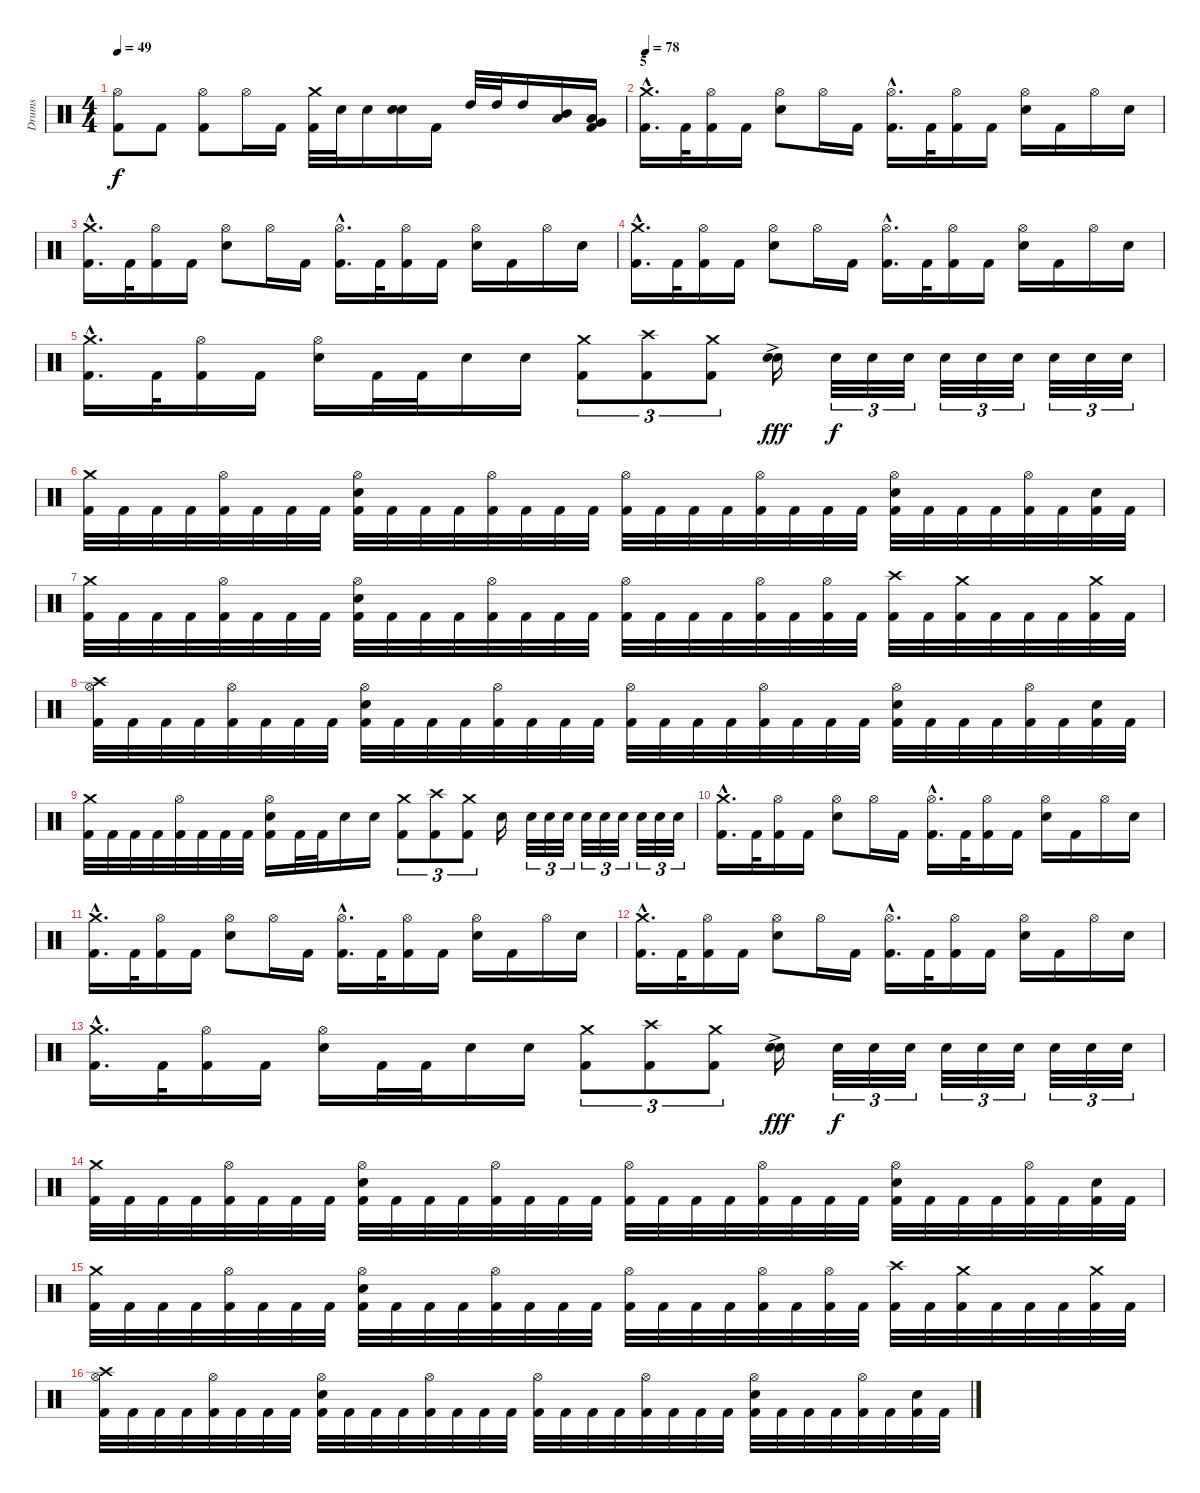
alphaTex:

\track ("Drums" "Drums") {instrument percussion}
\staff {score}
\articulation defaults
\ts (4 4)
\tempo 49
\clef neutral
\ks c
("Hi-Hat (open)" "Kick (hit) 2").8{dy f} "Kick (hit) 2".8 ("Hi-Hat (open)" "Kick (hit) 2").8 "Hi-Hat (open)".16 "Kick (hit) 2".16 ("Crash medium (hit)" "Kick (hit) 2").32 "Electric Snare (hit)".32 "Electric Snare (hit)".16 ("Electric Snare (hit)" "Electric Snare (hit)").16{bu 60} "Kick (hit) 2".16 "High Tom (hit)".32 "High Tom (hit)".32 "High Tom (hit)".16 ("Mid Tom (hit)" "Low Tom (hit)").16 ("Low Tom (hit)" "Very Low Tom (hit)" "Kick (hit) 2").16 |
\section ("" "5")
\tempo 78
("Crash medium (hit)"{hac} "Kick (hit) 2"{hac}).16{d} "Kick (hit) 2".32 ("Hi-Hat (open)" "Kick (hit) 2").16 "Kick (hit) 2".16 ("Hi-Hat (open)" "Electric Snare (hit)").8 "Hi-Hat (open)".16 "Kick (hit) 2".16 ("Hi-Hat (open)"{hac} "Kick (hit) 2"{hac}).16{d} "Kick (hit) 2".32 ("Hi-Hat (open)" "Kick (hit) 2").16 "Kick (hit) 2".16 ("Hi-Hat (open)" "Electric Snare (hit)").16 "Kick (hit) 2".16 "Hi-Hat (open)".16 "Electric Snare (hit)".16 |
("Crash medium (hit)"{hac} "Kick (hit) 2"{hac}).16{d} "Kick (hit) 2".32 ("Hi-Hat (open)" "Kick (hit) 2").16 "Kick (hit) 2".16 ("Hi-Hat (open)" "Electric Snare (hit)").8 "Hi-Hat (open)".16 "Kick (hit) 2".16 ("Hi-Hat (open)"{hac} "Kick (hit) 2"{hac}).16{d} "Kick (hit) 2".32 ("Hi-Hat (open)" "Kick (hit) 2").16 "Kick (hit) 2".16 ("Hi-Hat (open)" "Electric Snare (hit)").16 "Kick (hit) 2".16 "Hi-Hat (open)".16 "Electric Snare (hit)".16 |
("Crash medium (hit)"{hac} "Kick (hit) 2"{hac}).16{d} "Kick (hit) 2".32 ("Hi-Hat (open)" "Kick (hit) 2").16 "Kick (hit) 2".16 ("Hi-Hat (open)" "Electric Snare (hit)").8 "Hi-Hat (open)".16 "Kick (hit) 2".16 ("Hi-Hat (open)"{hac} "Kick (hit) 2"{hac}).16{d} "Kick (hit) 2".32 ("Hi-Hat (open)" "Kick (hit) 2").16 "Kick (hit) 2".16 ("Hi-Hat (open)" "Electric Snare (hit)").16 "Kick (hit) 2".16 "Hi-Hat (open)".16 "Electric Snare (hit)".16 |
("Crash medium (hit)"{hac} "Kick (hit) 2"{hac}).16{d} "Kick (hit) 2".32 ("Hi-Hat (open)" "Kick (hit) 2").16 "Kick (hit) 2".16 ("Hi-Hat (open)" "Electric Snare (hit)").16 "Kick (hit) 2".32 "Kick (hit) 2".32 "Electric Snare (hit)".16 "Electric Snare (hit)".16 ("Crash medium (hit)" "Kick (hit) 2").8{tu (3 2)} ("Crash high (hit)" "Kick (hit) 2").8{tu (3 2)} ("Crash medium (hit)" "Kick (hit) 2").8{tu (3 2)} ("Electric Snare (hit)"{ac} "Electric Snare (hit)"{tr (40 16) ac}).16{dy fff} "Electric Snare (hit)".32{tu (3 2) dy f} "Electric Snare (hit)".32{tu (3 2)} "Electric Snare (hit)".32{tu (3 2)} "Electric Snare (hit)".32{tu (3 2)} "Electric Snare (hit)".32{tu (3 2)} "Electric Snare (hit)".32{tu (3 2)} "Electric Snare (hit)".32{tu (3 2)} "Electric Snare (hit)".32{tu (3 2)} "Electric Snare (hit)".32{tu (3 2)} |
("Crash medium (hit)" "Kick (hit) 2").32 "Kick (hit) 2".32 "Kick (hit) 2".32 "Kick (hit) 2".32 ("Hi-Hat (open)" "Kick (hit) 2").32 "Kick (hit) 2".32 "Kick (hit) 2".32 "Kick (hit) 2".32 ("Hi-Hat (open)" "Electric Snare (hit)" "Kick (hit) 2").32 "Kick (hit) 2".32 "Kick (hit) 2".32 "Kick (hit) 2".32 ("Hi-Hat (open)" "Kick (hit) 2").32 "Kick (hit) 2".32 "Kick (hit) 2".32 "Kick (hit) 2".32 ("Hi-Hat (open)" "Kick (hit) 2").32 "Kick (hit) 2".32 "Kick (hit) 2".32 "Kick (hit) 2".32 ("Hi-Hat (open)" "Kick (hit) 2").32 "Kick (hit) 2".32 "Kick (hit) 2".32 "Kick (hit) 2".32 ("Hi-Hat (open)" "Electric Snare (hit)" "Kick (hit) 2").32 "Kick (hit) 2".32 "Kick (hit) 2".32 "Kick (hit) 2".32 ("Hi-Hat (open)" "Kick (hit) 2").32 "Kick (hit) 2".32 ("Electric Snare (hit)" "Kick (hit) 2").32 "Kick (hit) 2".32 |
("Crash medium (hit)" "Kick (hit) 2").32 "Kick (hit) 2".32 "Kick (hit) 2".32 "Kick (hit) 2".32 ("Hi-Hat (open)" "Kick (hit) 2").32 "Kick (hit) 2".32 "Kick (hit) 2".32 "Kick (hit) 2".32 ("Hi-Hat (open)" "Electric Snare (hit)" "Kick (hit) 2").32 "Kick (hit) 2".32 "Kick (hit) 2".32 "Kick (hit) 2".32 ("Hi-Hat (open)" "Kick (hit) 2").32 "Kick (hit) 2".32 "Kick (hit) 2".32 "Kick (hit) 2".32 ("Hi-Hat (open)" "Kick (hit) 2").32 "Kick (hit) 2".32 "Kick (hit) 2".32 "Kick (hit) 2".32 ("Hi-Hat (open)" "Kick (hit) 2").32 "Kick (hit) 2".32 ("Hi-Hat (open)" "Kick (hit) 2").32 "Kick (hit) 2".32 ("Crash high (hit)" "Kick (hit) 2").32 "Kick (hit) 2".32 ("Crash medium (hit)" "Kick (hit) 2").32 "Kick (hit) 2".32 "Kick (hit) 2".32 "Kick (hit) 2".32 ("Crash medium (hit)" "Kick (hit) 2").32 "Kick (hit) 2".32 |
("Crash high (hit)" "Hi-Hat (open)" "Kick (hit) 2").32 "Kick (hit) 2".32 "Kick (hit) 2".32 "Kick (hit) 2".32 ("Hi-Hat (open)" "Kick (hit) 2").32 "Kick (hit) 2".32 "Kick (hit) 2".32 "Kick (hit) 2".32 ("Hi-Hat (open)" "Electric Snare (hit)" "Kick (hit) 2").32 "Kick (hit) 2".32 "Kick (hit) 2".32 "Kick (hit) 2".32 ("Hi-Hat (open)" "Kick (hit) 2").32 "Kick (hit) 2".32 "Kick (hit) 2".32 "Kick (hit) 2".32 ("Hi-Hat (open)" "Kick (hit) 2").32 "Kick (hit) 2".32 "Kick (hit) 2".32 "Kick (hit) 2".32 ("Hi-Hat (open)" "Kick (hit) 2").32 "Kick (hit) 2".32 "Kick (hit) 2".32 "Kick (hit) 2".32 ("Hi-Hat (open)" "Electric Snare (hit)" "Kick (hit) 2").32 "Kick (hit) 2".32 "Kick (hit) 2".32 "Kick (hit) 2".32 ("Hi-Hat (open)" "Kick (hit) 2").32 "Kick (hit) 2".32 ("Electric Snare (hit)" "Kick (hit) 2").32 "Kick (hit) 2".32 |
("Crash medium (hit)" "Kick (hit) 2").32 "Kick (hit) 2".32 "Kick (hit) 2".32 "Kick (hit) 2".32 ("Hi-Hat (open)" "Kick (hit) 2").32 "Kick (hit) 2".32 "Kick (hit) 2".32 "Kick (hit) 2".32 ("Hi-Hat (open)" "Electric Snare (hit)" "Kick (hit) 2").16 "Kick (hit) 2".32 "Kick (hit) 2".32 "Electric Snare (hit)".16 "Electric Snare (hit)".16 ("Crash medium (hit)" "Kick (hit) 2").8{tu (3 2)} ("Crash high (hit)" "Kick (hit) 2").8{tu (3 2)} ("Crash medium (hit)" "Kick (hit) 2").8{tu (3 2)} "Electric Snare (hit)".16 "Electric Snare (hit)".32{tu (3 2)} "Electric Snare (hit)".32{tu (3 2)} "Electric Snare (hit)".32{tu (3 2)} "Electric Snare (hit)".32{tu (3 2)} "Electric Snare (hit)".32{tu (3 2)} "Electric Snare (hit)".32{tu (3 2)} "Electric Snare (hit)".32{tu (3 2)} "Electric Snare (hit)".32{tu (3 2)} "Electric Snare (hit)".32{tu (3 2)} |
("Crash medium (hit)"{hac} "Kick (hit) 2"{hac}).16{d} "Kick (hit) 2".32 ("Hi-Hat (open)" "Kick (hit) 2").16 "Kick (hit) 2".16 ("Hi-Hat (open)" "Electric Snare (hit)").8 "Hi-Hat (open)".16 "Kick (hit) 2".16 ("Hi-Hat (open)"{hac} "Kick (hit) 2"{hac}).16{d} "Kick (hit) 2".32 ("Hi-Hat (open)" "Kick (hit) 2").16 "Kick (hit) 2".16 ("Hi-Hat (open)" "Electric Snare (hit)").16 "Kick (hit) 2".16 "Hi-Hat (open)".16 "Electric Snare (hit)".16 |
("Crash medium (hit)"{hac} "Kick (hit) 2"{hac}).16{d} "Kick (hit) 2".32 ("Hi-Hat (open)" "Kick (hit) 2").16 "Kick (hit) 2".16 ("Hi-Hat (open)" "Electric Snare (hit)").8 "Hi-Hat (open)".16 "Kick (hit) 2".16 ("Hi-Hat (open)"{hac} "Kick (hit) 2"{hac}).16{d} "Kick (hit) 2".32 ("Hi-Hat (open)" "Kick (hit) 2").16 "Kick (hit) 2".16 ("Hi-Hat (open)" "Electric Snare (hit)").16 "Kick (hit) 2".16 "Hi-Hat (open)".16 "Electric Snare (hit)".16 |
("Crash medium (hit)"{hac} "Kick (hit) 2"{hac}).16{d} "Kick (hit) 2".32 ("Hi-Hat (open)" "Kick (hit) 2").16 "Kick (hit) 2".16 ("Hi-Hat (open)" "Electric Snare (hit)").8 "Hi-Hat (open)".16 "Kick (hit) 2".16 ("Hi-Hat (open)"{hac} "Kick (hit) 2"{hac}).16{d} "Kick (hit) 2".32 ("Hi-Hat (open)" "Kick (hit) 2").16 "Kick (hit) 2".16 ("Hi-Hat (open)" "Electric Snare (hit)").16 "Kick (hit) 2".16 "Hi-Hat (open)".16 "Electric Snare (hit)".16 |
("Crash medium (hit)"{hac} "Kick (hit) 2"{hac}).16{d} "Kick (hit) 2".32 ("Hi-Hat (open)" "Kick (hit) 2").16 "Kick (hit) 2".16 ("Hi-Hat (open)" "Electric Snare (hit)").16 "Kick (hit) 2".32 "Kick (hit) 2".32 "Electric Snare (hit)".16 "Electric Snare (hit)".16 ("Crash medium (hit)" "Kick (hit) 2").8{tu (3 2)} ("Crash high (hit)" "Kick (hit) 2").8{tu (3 2)} ("Crash medium (hit)" "Kick (hit) 2").8{tu (3 2)} ("Electric Snare (hit)"{ac} "Electric Snare (hit)"{tr (40 16) ac}).16{dy fff} "Electric Snare (hit)".32{tu (3 2) dy f} "Electric Snare (hit)".32{tu (3 2)} "Electric Snare (hit)".32{tu (3 2)} "Electric Snare (hit)".32{tu (3 2)} "Electric Snare (hit)".32{tu (3 2)} "Electric Snare (hit)".32{tu (3 2)} "Electric Snare (hit)".32{tu (3 2)} "Electric Snare (hit)".32{tu (3 2)} "Electric Snare (hit)".32{tu (3 2)} |
("Crash medium (hit)" "Kick (hit) 2").32 "Kick (hit) 2".32 "Kick (hit) 2".32 "Kick (hit) 2".32 ("Hi-Hat (open)" "Kick (hit) 2").32 "Kick (hit) 2".32 "Kick (hit) 2".32 "Kick (hit) 2".32 ("Hi-Hat (open)" "Electric Snare (hit)" "Kick (hit) 2").32 "Kick (hit) 2".32 "Kick (hit) 2".32 "Kick (hit) 2".32 ("Hi-Hat (open)" "Kick (hit) 2").32 "Kick (hit) 2".32 "Kick (hit) 2".32 "Kick (hit) 2".32 ("Hi-Hat (open)" "Kick (hit) 2").32 "Kick (hit) 2".32 "Kick (hit) 2".32 "Kick (hit) 2".32 ("Hi-Hat (open)" "Kick (hit) 2").32 "Kick (hit) 2".32 "Kick (hit) 2".32 "Kick (hit) 2".32 ("Hi-Hat (open)" "Electric Snare (hit)" "Kick (hit) 2").32 "Kick (hit) 2".32 "Kick (hit) 2".32 "Kick (hit) 2".32 ("Hi-Hat (open)" "Kick (hit) 2").32 "Kick (hit) 2".32 ("Electric Snare (hit)" "Kick (hit) 2").32 "Kick (hit) 2".32 |
("Crash medium (hit)" "Kick (hit) 2").32 "Kick (hit) 2".32 "Kick (hit) 2".32 "Kick (hit) 2".32 ("Hi-Hat (open)" "Kick (hit) 2").32 "Kick (hit) 2".32 "Kick (hit) 2".32 "Kick (hit) 2".32 ("Hi-Hat (open)" "Electric Snare (hit)" "Kick (hit) 2").32 "Kick (hit) 2".32 "Kick (hit) 2".32 "Kick (hit) 2".32 ("Hi-Hat (open)" "Kick (hit) 2").32 "Kick (hit) 2".32 "Kick (hit) 2".32 "Kick (hit) 2".32 ("Hi-Hat (open)" "Kick (hit) 2").32 "Kick (hit) 2".32 "Kick (hit) 2".32 "Kick (hit) 2".32 ("Hi-Hat (open)" "Kick (hit) 2").32 "Kick (hit) 2".32 ("Hi-Hat (open)" "Kick (hit) 2").32 "Kick (hit) 2".32 ("Crash high (hit)" "Kick (hit) 2").32 "Kick (hit) 2".32 ("Crash medium (hit)" "Kick (hit) 2").32 "Kick (hit) 2".32 "Kick (hit) 2".32 "Kick (hit) 2".32 ("Crash medium (hit)" "Kick (hit) 2").32 "Kick (hit) 2".32 |
("Crash high (hit)" "Hi-Hat (open)" "Kick (hit) 2").32 "Kick (hit) 2".32 "Kick (hit) 2".32 "Kick (hit) 2".32 ("Hi-Hat (open)" "Kick (hit) 2").32 "Kick (hit) 2".32 "Kick (hit) 2".32 "Kick (hit) 2".32 ("Hi-Hat (open)" "Electric Snare (hit)" "Kick (hit) 2").32 "Kick (hit) 2".32 "Kick (hit) 2".32 "Kick (hit) 2".32 ("Hi-Hat (open)" "Kick (hit) 2").32 "Kick (hit) 2".32 "Kick (hit) 2".32 "Kick (hit) 2".32 ("Hi-Hat (open)" "Kick (hit) 2").32 "Kick (hit) 2".32 "Kick (hit) 2".32 "Kick (hit) 2".32 ("Hi-Hat (open)" "Kick (hit) 2").32 "Kick (hit) 2".32 "Kick (hit) 2".32 "Kick (hit) 2".32 ("Hi-Hat (open)" "Electric Snare (hit)" "Kick (hit) 2").32 "Kick (hit) 2".32 "Kick (hit) 2".32 "Kick (hit) 2".32 ("Hi-Hat (open)" "Kick (hit) 2").32 "Kick (hit) 2".32 ("Electric Snare (hit)" "Kick (hit) 2").32 "Kick (hit) 2".32
